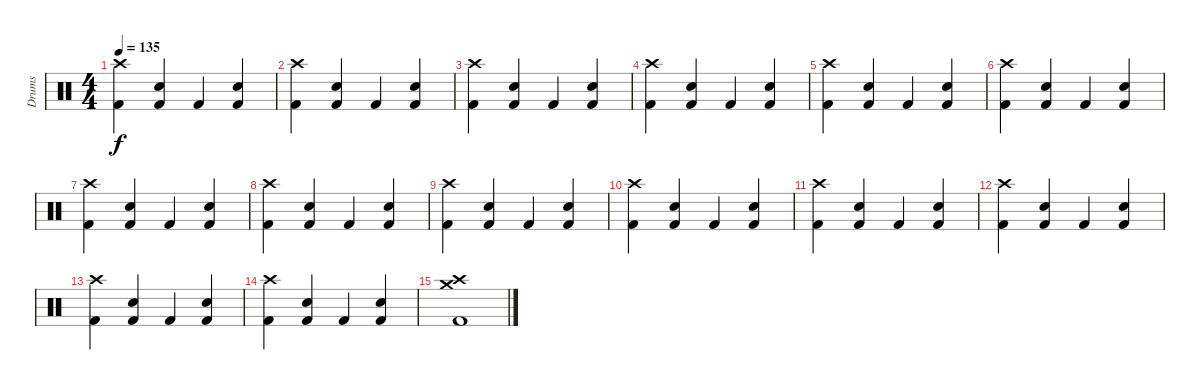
\track ("Drums" "Drums") {instrument percussion}
\staff {score}
\articulation defaults
\ts (4 4)
\tempo 135
\clef neutral
\ks c
("Crash high (hit)" "Kick (hit) 2").4{dy f} ("Snare (hit) 2" "Kick (hit) 2").4 "Kick (hit) 2".4 ("Snare (hit) 2" "Kick (hit) 2").4 |
("Crash high (hit)" "Kick (hit) 2").4 ("Snare (hit) 2" "Kick (hit) 2").4 "Kick (hit) 2".4 ("Snare (hit) 2" "Kick (hit) 2").4 |
("Crash high (hit)" "Kick (hit) 2").4 ("Snare (hit) 2" "Kick (hit) 2").4 "Kick (hit) 2".4 ("Snare (hit) 2" "Kick (hit) 2").4 |
("Crash high (hit)" "Kick (hit) 2").4 ("Snare (hit) 2" "Kick (hit) 2").4 "Kick (hit) 2".4 ("Snare (hit) 2" "Kick (hit) 2").4 |
("Crash high (hit)" "Kick (hit) 2").4 ("Snare (hit) 2" "Kick (hit) 2").4 "Kick (hit) 2".4 ("Snare (hit) 2" "Kick (hit) 2").4 |
("Crash high (hit)" "Kick (hit) 2").4 ("Snare (hit) 2" "Kick (hit) 2").4 "Kick (hit) 2".4 ("Snare (hit) 2" "Kick (hit) 2").4 |
("Crash high (hit)" "Kick (hit) 2").4 ("Snare (hit) 2" "Kick (hit) 2").4 "Kick (hit) 2".4 ("Snare (hit) 2" "Kick (hit) 2").4 |
("Crash high (hit)" "Kick (hit) 2").4 ("Snare (hit) 2" "Kick (hit) 2").4 "Kick (hit) 2".4 ("Snare (hit) 2" "Kick (hit) 2").4 |
("Crash high (hit)" "Kick (hit) 2").4 ("Snare (hit) 2" "Kick (hit) 2").4 "Kick (hit) 2".4 ("Snare (hit) 2" "Kick (hit) 2").4 |
("Crash high (hit)" "Kick (hit) 2").4 ("Snare (hit) 2" "Kick (hit) 2").4 "Kick (hit) 2".4 ("Snare (hit) 2" "Kick (hit) 2").4 |
("Crash high (hit)" "Kick (hit) 2").4 ("Snare (hit) 2" "Kick (hit) 2").4 "Kick (hit) 2".4 ("Snare (hit) 2" "Kick (hit) 2").4 |
("Crash high (hit)" "Kick (hit) 2").4 ("Snare (hit) 2" "Kick (hit) 2").4 "Kick (hit) 2".4 ("Snare (hit) 2" "Kick (hit) 2").4 |
("Crash high (hit)" "Kick (hit) 2").4 ("Snare (hit) 2" "Kick (hit) 2").4 "Kick (hit) 2".4 ("Snare (hit) 2" "Kick (hit) 2").4 |
("Crash high (hit)" "Kick (hit) 2").4 ("Snare (hit) 2" "Kick (hit) 2").4 "Kick (hit) 2".4 ("Snare (hit) 2" "Kick (hit) 2").4 |
("Crash medium (hit)" "Crash high (hit)" "Kick (hit) 2").1
